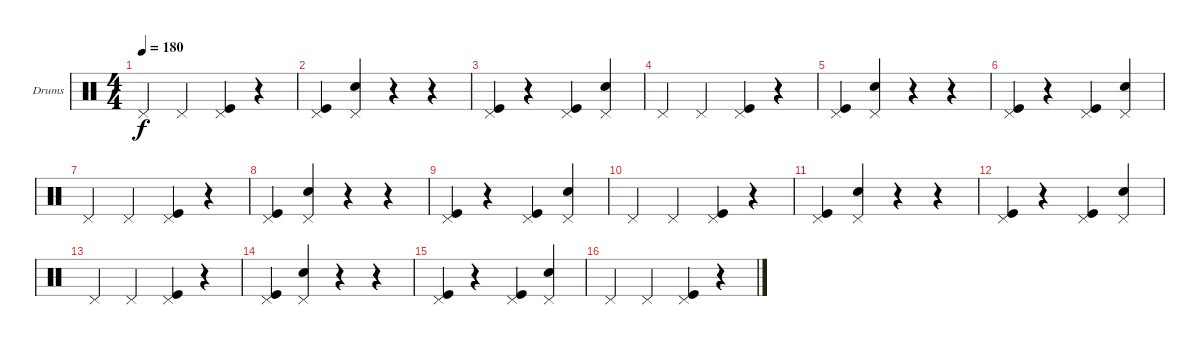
\defaultSystemsLayout 4
\bracketExtendMode groupsimilarinstruments
\firstSystemTrackNameOrientation horizontal
\otherSystemsTrackNameOrientation horizontal
\track ("Георгий Гурьянов" "Drums") {instrument percussion}
\staff {score}
\articulation defaults
\ts (4 4)
\tempo 180
\clef neutral
\ks c "Pedal Hi-Hat (hit)".4{dy f} "Pedal Hi-Hat (hit)".4
("Pedal Hi-Hat (hit)" "Kick (hit)").4 r.4 |
("Pedal Hi-Hat (hit)" "Kick (hit)").4 ("Pedal Hi-Hat (hit)" "Snare (hit) 2").4 r.4 r.4 |
("Pedal Hi-Hat (hit)" "Kick (hit)").4 r.4 ("Pedal Hi-Hat (hit)" "Kick (hit)").4 ("Pedal Hi-Hat (hit)" "Snare (hit) 2").4 |
"Pedal Hi-Hat (hit)".4 "Pedal Hi-Hat (hit)".4 ("Pedal Hi-Hat (hit)" "Kick (hit)").4 r.4 |
("Pedal Hi-Hat (hit)" "Kick (hit)").4 ("Pedal Hi-Hat (hit)" "Snare (hit) 2").4 r.4 r.4 |
("Pedal Hi-Hat (hit)" "Kick (hit)").4 r.4 ("Pedal Hi-Hat (hit)" "Kick (hit)").4 ("Pedal Hi-Hat (hit)" "Snare (hit) 2").4 |
"Pedal Hi-Hat (hit)".4 "Pedal Hi-Hat (hit)".4 ("Pedal Hi-Hat (hit)" "Kick (hit)").4 r.4 |
("Pedal Hi-Hat (hit)" "Kick (hit)").4 ("Pedal Hi-Hat (hit)" "Snare (hit) 2").4 r.4 r.4 |
("Pedal Hi-Hat (hit)" "Kick (hit)").4 r.4 ("Pedal Hi-Hat (hit)" "Kick (hit)").4 ("Pedal Hi-Hat (hit)" "Snare (hit) 2").4 |
"Pedal Hi-Hat (hit)".4 "Pedal Hi-Hat (hit)".4 ("Pedal Hi-Hat (hit)" "Kick (hit)").4 r.4 |
("Pedal Hi-Hat (hit)" "Kick (hit)").4 ("Pedal Hi-Hat (hit)" "Snare (hit) 2").4 r.4 r.4 |
("Pedal Hi-Hat (hit)" "Kick (hit)").4 r.4 ("Pedal Hi-Hat (hit)" "Kick (hit)").4 ("Pedal Hi-Hat (hit)" "Snare (hit) 2").4 |
"Pedal Hi-Hat (hit)".4 "Pedal Hi-Hat (hit)".4 ("Pedal Hi-Hat (hit)" "Kick (hit)").4 r.4 |
("Pedal Hi-Hat (hit)" "Kick (hit)").4 ("Pedal Hi-Hat (hit)" "Snare (hit) 2").4 r.4 r.4 |
("Pedal Hi-Hat (hit)" "Kick (hit)").4 r.4 ("Pedal Hi-Hat (hit)" "Kick (hit)").4 ("Pedal Hi-Hat (hit)" "Snare (hit) 2").4 |
"Pedal Hi-Hat (hit)".4 "Pedal Hi-Hat (hit)".4 ("Pedal Hi-Hat (hit)" "Kick (hit)").4 r.4
